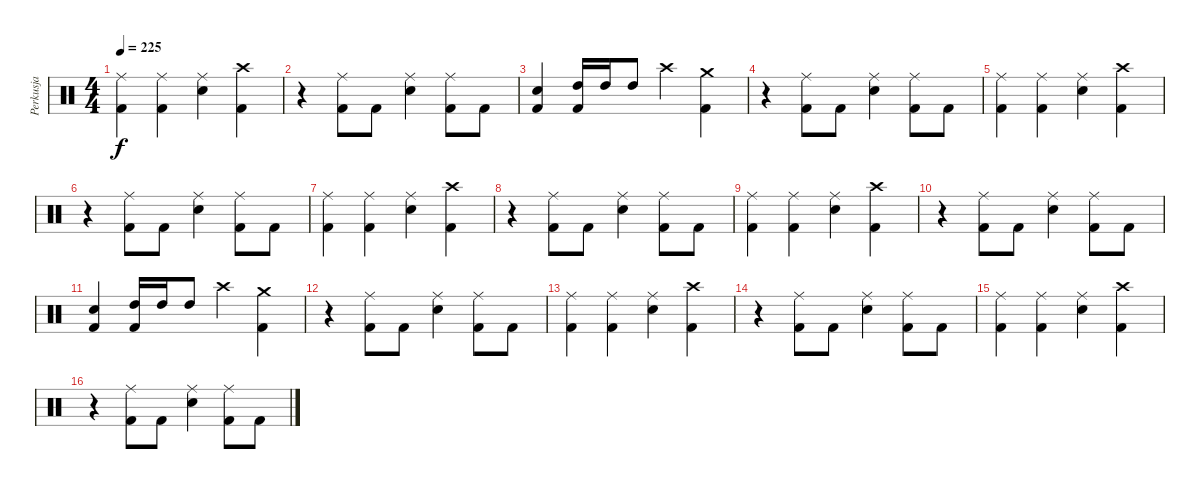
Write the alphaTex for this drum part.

\track ("Perkusja" "Perkusja") {instrument percussion}
\staff {score}
\articulation defaults
\ts (4 4)
\tempo 225
\clef neutral
\ks c
("Ride (middle)" "Kick (hit) 2").4{dy f} ("Ride (middle)" "Kick (hit) 2").4 ("Ride (middle)" "Snare (hit) 2").4 ("Crash high (hit)" "Kick (hit) 2").4 |
r.4 ("Ride (middle)" "Kick (hit) 2").8 "Kick (hit) 2".8 ("Ride (middle)" "Snare (hit) 2").4 ("Ride (middle)" "Kick (hit) 2").8 "Kick (hit) 2".8 |
("Snare (hit) 2" "Kick (hit) 2").4 ("High Tom (hit)" "Kick (hit) 2").16 "High Tom (hit)".16 "High Tom (hit)".8 "Crash high (hit)".4 ("Crash medium (hit)" "Kick (hit) 2").4 |
r.4 ("Ride (middle)" "Kick (hit) 2").8 "Kick (hit) 2".8 ("Ride (middle)" "Snare (hit) 2").4 ("Ride (middle)" "Kick (hit) 2").8 "Kick (hit) 2".8 |
("Ride (middle)" "Kick (hit) 2").4 ("Ride (middle)" "Kick (hit) 2").4 ("Ride (middle)" "Snare (hit) 2").4 ("Crash high (hit)" "Kick (hit) 2").4 |
r.4 ("Ride (middle)" "Kick (hit) 2").8 "Kick (hit) 2".8 ("Ride (middle)" "Snare (hit) 2").4 ("Ride (middle)" "Kick (hit) 2").8 "Kick (hit) 2".8 |
("Ride (middle)" "Kick (hit) 2").4 ("Ride (middle)" "Kick (hit) 2").4 ("Ride (middle)" "Snare (hit) 2").4 ("Crash high (hit)" "Kick (hit) 2").4 |
r.4 ("Ride (middle)" "Kick (hit) 2").8 "Kick (hit) 2".8 ("Ride (middle)" "Snare (hit) 2").4 ("Ride (middle)" "Kick (hit) 2").8 "Kick (hit) 2".8 |
("Ride (middle)" "Kick (hit) 2").4 ("Ride (middle)" "Kick (hit) 2").4 ("Ride (middle)" "Snare (hit) 2").4 ("Crash high (hit)" "Kick (hit) 2").4 |
r.4 ("Ride (middle)" "Kick (hit) 2").8 "Kick (hit) 2".8 ("Ride (middle)" "Snare (hit) 2").4 ("Ride (middle)" "Kick (hit) 2").8 "Kick (hit) 2".8 |
("Snare (hit) 2" "Kick (hit) 2").4 ("High Tom (hit)" "Kick (hit) 2").16 "High Tom (hit)".16 "High Tom (hit)".8 "Crash high (hit)".4 ("Crash medium (hit)" "Kick (hit) 2").4 |
r.4 ("Ride (middle)" "Kick (hit) 2").8 "Kick (hit) 2".8 ("Ride (middle)" "Snare (hit) 2").4 ("Ride (middle)" "Kick (hit) 2").8 "Kick (hit) 2".8 |
("Ride (middle)" "Kick (hit) 2").4 ("Ride (middle)" "Kick (hit) 2").4 ("Ride (middle)" "Snare (hit) 2").4 ("Crash high (hit)" "Kick (hit) 2").4 |
r.4 ("Ride (middle)" "Kick (hit) 2").8 "Kick (hit) 2".8 ("Ride (middle)" "Snare (hit) 2").4 ("Ride (middle)" "Kick (hit) 2").8 "Kick (hit) 2".8 |
("Ride (middle)" "Kick (hit) 2").4 ("Ride (middle)" "Kick (hit) 2").4 ("Ride (middle)" "Snare (hit) 2").4 ("Crash high (hit)" "Kick (hit) 2").4 |
r.4 ("Ride (middle)" "Kick (hit) 2").8 "Kick (hit) 2".8 ("Ride (middle)" "Snare (hit) 2").4 ("Ride (middle)" "Kick (hit) 2").8 "Kick (hit) 2".8
